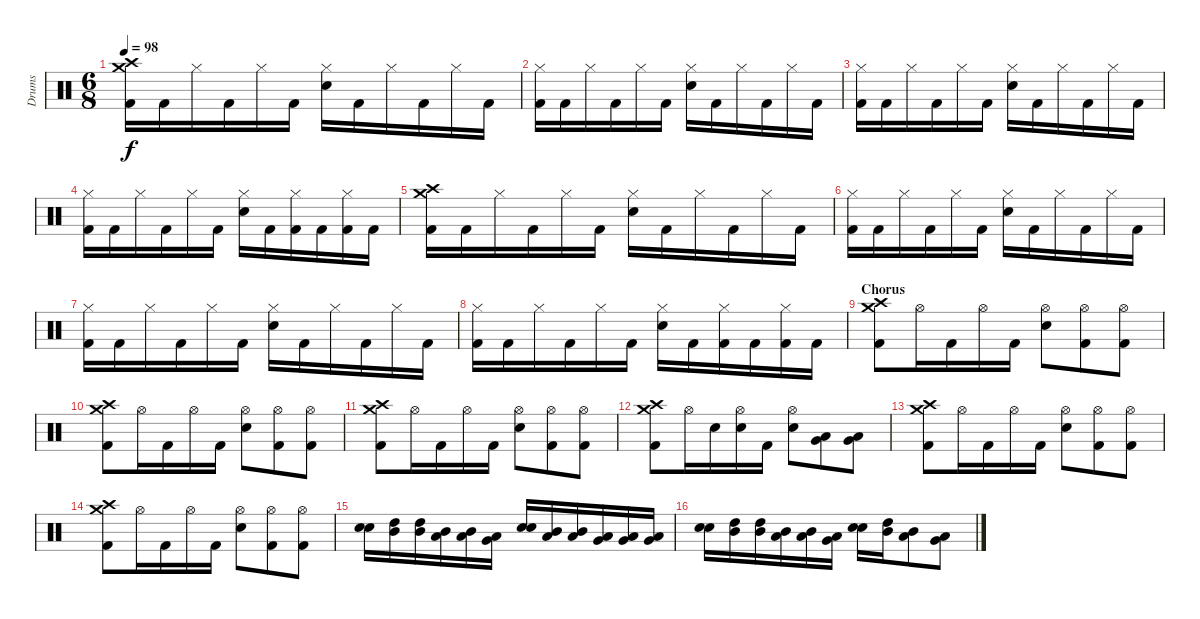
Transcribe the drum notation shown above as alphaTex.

\track ("Drums" "Drums") {instrument percussion}
\staff {score}
\articulation defaults
\ts (6 8)
\tempo 98
\clef neutral
\ks c
("Crash high (hit)" "Crash medium (hit)" "Kick (hit) 2").16{dy f} "Kick (hit) 2".16 "Hi-Hat (closed)".16 "Kick (hit) 2".16 "Hi-Hat (closed)".16 "Kick (hit) 2".16 ("Hi-Hat (closed)" "Electric Snare (hit)").16 "Kick (hit) 2".16 "Hi-Hat (closed)".16 "Kick (hit) 2".16 "Hi-Hat (closed)".16 "Kick (hit) 2".16 |
("Hi-Hat (closed)" "Kick (hit) 2").16 "Kick (hit) 2".16 "Hi-Hat (closed)".16 "Kick (hit) 2".16 "Hi-Hat (closed)".16 "Kick (hit) 2".16 ("Hi-Hat (closed)" "Electric Snare (hit)").16 "Kick (hit) 2".16 "Hi-Hat (closed)".16 "Kick (hit) 2".16 "Hi-Hat (closed)".16 "Kick (hit) 2".16 |
("Hi-Hat (closed)" "Kick (hit) 2").16 "Kick (hit) 2".16 "Hi-Hat (closed)".16 "Kick (hit) 2".16 "Hi-Hat (closed)".16 "Kick (hit) 2".16 ("Hi-Hat (closed)" "Electric Snare (hit)").16 "Kick (hit) 2".16 "Hi-Hat (closed)".16 "Kick (hit) 2".16 "Hi-Hat (closed)".16 "Kick (hit) 2".16 |
("Hi-Hat (closed)" "Kick (hit) 2").16 "Kick (hit) 2".16 "Hi-Hat (closed)".16 "Kick (hit) 2".16 "Hi-Hat (closed)".16 "Kick (hit) 2".16 ("Hi-Hat (closed)" "Electric Snare (hit)").16 "Kick (hit) 2".16 ("Hi-Hat (closed)" "Kick (hit) 2").16 "Kick (hit) 2".16 ("Hi-Hat (closed)" "Kick (hit) 2").16 "Kick (hit) 2".16 |
("Crash high (hit)" "Crash medium (hit)" "Kick (hit) 2").16 "Kick (hit) 2".16 "Hi-Hat (closed)".16 "Kick (hit) 2".16 "Hi-Hat (closed)".16 "Kick (hit) 2".16 ("Hi-Hat (closed)" "Electric Snare (hit)").16 "Kick (hit) 2".16 "Hi-Hat (closed)".16 "Kick (hit) 2".16 "Hi-Hat (closed)".16 "Kick (hit) 2".16 |
("Hi-Hat (closed)" "Kick (hit) 2").16 "Kick (hit) 2".16 "Hi-Hat (closed)".16 "Kick (hit) 2".16 "Hi-Hat (closed)".16 "Kick (hit) 2".16 ("Hi-Hat (closed)" "Electric Snare (hit)").16 "Kick (hit) 2".16 "Hi-Hat (closed)".16 "Kick (hit) 2".16 "Hi-Hat (closed)".16 "Kick (hit) 2".16 |
("Hi-Hat (closed)" "Kick (hit) 2").16 "Kick (hit) 2".16 "Hi-Hat (closed)".16 "Kick (hit) 2".16 "Hi-Hat (closed)".16 "Kick (hit) 2".16 ("Hi-Hat (closed)" "Electric Snare (hit)").16 "Kick (hit) 2".16 "Hi-Hat (closed)".16 "Kick (hit) 2".16 "Hi-Hat (closed)".16 "Kick (hit) 2".16 |
("Hi-Hat (closed)" "Kick (hit) 2").16 "Kick (hit) 2".16 "Hi-Hat (closed)".16 "Kick (hit) 2".16 "Hi-Hat (closed)".16 "Kick (hit) 2".16 ("Hi-Hat (closed)" "Electric Snare (hit)").16 "Kick (hit) 2".16 ("Hi-Hat (closed)" "Kick (hit) 2").16 "Kick (hit) 2".16 ("Hi-Hat (closed)" "Kick (hit) 2").16 "Kick (hit) 2".16 |
\section ("" "Chorus")
("Crash high (hit)" "Crash medium (hit)" "Kick (hit) 2").8 "Hi-Hat (open)".16 "Kick (hit) 2".16 "Hi-Hat (open)".16 "Kick (hit) 2".16 ("Hi-Hat (open)" "Electric Snare (hit)").8 ("Hi-Hat (open)" "Kick (hit) 2").8 ("Hi-Hat (open)" "Kick (hit) 2").8 |
("Crash high (hit)" "Crash medium (hit)" "Kick (hit) 2").8 "Hi-Hat (open)".16 "Kick (hit) 2".16 "Hi-Hat (open)".16 "Kick (hit) 2".16 ("Hi-Hat (open)" "Electric Snare (hit)").8 ("Hi-Hat (open)" "Kick (hit) 2").8 ("Hi-Hat (open)" "Kick (hit) 2").8 |
("Crash high (hit)" "Crash medium (hit)" "Kick (hit) 2").8 "Hi-Hat (open)".16 "Kick (hit) 2".16 "Hi-Hat (open)".16 "Kick (hit) 2".16 ("Hi-Hat (open)" "Electric Snare (hit)").8 ("Hi-Hat (open)" "Kick (hit) 2").8 ("Hi-Hat (open)" "Kick (hit) 2").8 |
("Crash high (hit)" "Crash medium (hit)" "Kick (hit) 2").8 "Hi-Hat (open)".16 "Electric Snare (hit)".16 ("Hi-Hat (open)" "Electric Snare (hit)").16 "Kick (hit) 2".16 ("Hi-Hat (open)" "Electric Snare (hit)").8 ("Low Tom (hit)" "Very Low Tom (hit)").8 ("Very Low Tom (hit)" "Low Floor Tom (hit)").8 |
("Crash high (hit)" "Crash medium (hit)" "Kick (hit) 2").8 "Hi-Hat (open)".16 "Kick (hit) 2".16 "Hi-Hat (open)".16 "Kick (hit) 2".16 ("Hi-Hat (open)" "Electric Snare (hit)").8 ("Hi-Hat (open)" "Kick (hit) 2").8 ("Hi-Hat (open)" "Kick (hit) 2").8 |
("Crash high (hit)" "Crash medium (hit)" "Kick (hit) 2").8 "Hi-Hat (open)".16 "Kick (hit) 2".16 "Hi-Hat (open)".16 "Kick (hit) 2".16 ("Hi-Hat (open)" "Electric Snare (hit)").8 ("Hi-Hat (open)" "Kick (hit) 2").8 ("Hi-Hat (open)" "Kick (hit) 2").8 |
("Electric Snare (hit)" "Electric Snare (hit)").16 ("High Tom (hit)" "Mid Tom (hit)").16 ("High Tom (hit)" "Mid Tom (hit)").16 ("Mid Tom (hit)" "Low Tom (hit)").16 ("Mid Tom (hit)" "Low Tom (hit)").16 ("Low Tom (hit)" "Very Low Tom (hit)").16 ("Electric Snare (hit)" "Electric Snare (hit)").16 ("Mid Tom (hit)" "Low Tom (hit)").16 ("Mid Tom (hit)" "Low Tom (hit)").16 ("Low Tom (hit)" "Very Low Tom (hit)").16 ("Low Tom (hit)" "Very Low Tom (hit)").16 ("Very Low Tom (hit)" "Low Floor Tom (hit)").16 |
("Electric Snare (hit)" "Electric Snare (hit)").16 ("High Tom (hit)" "Mid Tom (hit)").16 ("High Tom (hit)" "Mid Tom (hit)").16 ("Mid Tom (hit)" "Low Tom (hit)").16 ("Mid Tom (hit)" "Low Tom (hit)").16 ("Low Tom (hit)" "Very Low Tom (hit)").16 ("Electric Snare (hit)" "Electric Snare (hit)").16 ("High Tom (hit)" "Mid Tom (hit)").16 ("Mid Tom (hit)" "Low Tom (hit)").8 ("Low Tom (hit)" "Very Low Tom (hit)").8
